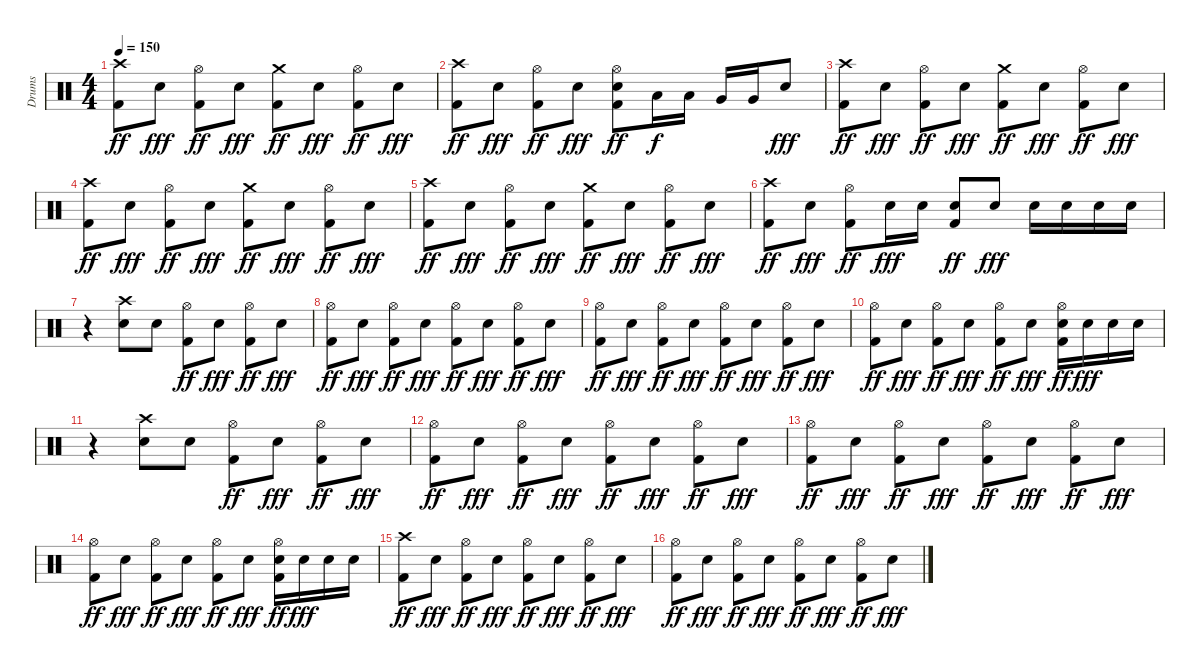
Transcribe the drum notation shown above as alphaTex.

\track ("Drums" "Drums") {instrument percussion}
\staff {score}
\articulation defaults
\ts (4 4)
\tempo 150
\clef neutral
\ks c
("Crash high (hit)" "Kick (hit) 2").8{dy ff} "Snare (hit) 2".8{dy fff} ("Hi-Hat (open)" "Kick (hit) 2").8{dy ff} "Snare (hit) 2".8{dy fff} ("Crash medium (hit)" "Kick (hit) 2").8{dy ff} "Snare (hit) 2".8{dy fff} ("Hi-Hat (open)" "Kick (hit) 2").8{dy ff} "Snare (hit) 2".8{dy fff} |
("Crash high (hit)" "Kick (hit) 2").8{dy ff} "Snare (hit) 2".8{dy fff} ("Hi-Hat (open)" "Kick (hit) 2").8{dy ff} "Snare (hit) 2".8{dy fff} ("Hi-Hat (open)" "Snare (hit) 2" "Kick (hit) 2").8{dy ff} "Low Tom (hit)".16{dy f} "Low Tom (hit)".16 "Very Low Tom (hit)".16 "Very Low Tom (hit)".16 "Snare (hit) 2".8{dy fff} |
("Crash high (hit)" "Kick (hit) 2").8{dy ff} "Snare (hit) 2".8{dy fff} ("Hi-Hat (open)" "Kick (hit) 2").8{dy ff} "Snare (hit) 2".8{dy fff} ("Crash medium (hit)" "Kick (hit) 2").8{dy ff} "Snare (hit) 2".8{dy fff} ("Hi-Hat (open)" "Kick (hit) 2").8{dy ff} "Snare (hit) 2".8{dy fff} |
("Crash high (hit)" "Kick (hit) 2").8{dy ff} "Snare (hit) 2".8{dy fff} ("Hi-Hat (open)" "Kick (hit) 2").8{dy ff} "Snare (hit) 2".8{dy fff} ("Crash medium (hit)" "Kick (hit) 2").8{dy ff} "Snare (hit) 2".8{dy fff} ("Hi-Hat (open)" "Kick (hit) 2").8{dy ff} "Snare (hit) 2".8{dy fff} |
("Crash high (hit)" "Kick (hit) 2").8{dy ff} "Snare (hit) 2".8{dy fff} ("Hi-Hat (open)" "Kick (hit) 2").8{dy ff} "Snare (hit) 2".8{dy fff} ("Crash medium (hit)" "Kick (hit) 2").8{dy ff} "Snare (hit) 2".8{dy fff} ("Hi-Hat (open)" "Kick (hit) 2").8{dy ff} "Snare (hit) 2".8{dy fff} |
("Crash high (hit)" "Kick (hit) 2").8{dy ff} "Snare (hit) 2".8{dy fff} ("Hi-Hat (open)" "Kick (hit) 2").8{dy ff} "Snare (hit) 2".16{dy fff} "Snare (hit) 2".16 ("Snare (hit) 2" "Kick (hit) 2").8{dy ff} "Snare (hit) 2".8{dy fff} "Snare (hit) 2".16 "Snare (hit) 2".16 "Snare (hit) 2".16 "Snare (hit) 2".16 |
r.4 ("Crash high (hit)" "Snare (hit) 2").8 "Snare (hit) 2".8 ("Hi-Hat (open)" "Kick (hit) 2").8{dy ff} "Snare (hit) 2".8{dy fff} ("Hi-Hat (open)" "Kick (hit) 2").8{dy ff} "Snare (hit) 2".8{dy fff} |
("Hi-Hat (open)" "Kick (hit) 2").8{dy ff} "Snare (hit) 2".8{dy fff} ("Hi-Hat (open)" "Kick (hit) 2").8{dy ff} "Snare (hit) 2".8{dy fff} ("Hi-Hat (open)" "Kick (hit) 2").8{dy ff} "Snare (hit) 2".8{dy fff} ("Hi-Hat (open)" "Kick (hit) 2").8{dy ff} "Snare (hit) 2".8{dy fff} |
("Hi-Hat (open)" "Kick (hit) 2").8{dy ff} "Snare (hit) 2".8{dy fff} ("Hi-Hat (open)" "Kick (hit) 2").8{dy ff} "Snare (hit) 2".8{dy fff} ("Hi-Hat (open)" "Kick (hit) 2").8{dy ff} "Snare (hit) 2".8{dy fff} ("Hi-Hat (open)" "Kick (hit) 2").8{dy ff} "Snare (hit) 2".8{dy fff} |
("Hi-Hat (open)" "Kick (hit) 2").8{dy ff} "Snare (hit) 2".8{dy fff} ("Hi-Hat (open)" "Kick (hit) 2").8{dy ff} "Snare (hit) 2".8{dy fff} ("Hi-Hat (open)" "Kick (hit) 2").8{dy ff} "Snare (hit) 2".8{dy fff} ("Hi-Hat (open)" "Snare (hit) 2" "Kick (hit) 2").16{dy ff} "Snare (hit) 2".16{dy fff} "Snare (hit) 2".16 "Snare (hit) 2".16 |
r.4 ("Crash high (hit)" "Snare (hit) 2").8 "Snare (hit) 2".8 ("Hi-Hat (open)" "Kick (hit) 2").8{dy ff} "Snare (hit) 2".8{dy fff} ("Hi-Hat (open)" "Kick (hit) 2").8{dy ff} "Snare (hit) 2".8{dy fff} |
("Hi-Hat (open)" "Kick (hit) 2").8{dy ff} "Snare (hit) 2".8{dy fff} ("Hi-Hat (open)" "Kick (hit) 2").8{dy ff} "Snare (hit) 2".8{dy fff} ("Hi-Hat (open)" "Kick (hit) 2").8{dy ff} "Snare (hit) 2".8{dy fff} ("Hi-Hat (open)" "Kick (hit) 2").8{dy ff} "Snare (hit) 2".8{dy fff} |
("Hi-Hat (open)" "Kick (hit) 2").8{dy ff} "Snare (hit) 2".8{dy fff} ("Hi-Hat (open)" "Kick (hit) 2").8{dy ff} "Snare (hit) 2".8{dy fff} ("Hi-Hat (open)" "Kick (hit) 2").8{dy ff} "Snare (hit) 2".8{dy fff} ("Hi-Hat (open)" "Kick (hit) 2").8{dy ff} "Snare (hit) 2".8{dy fff} |
("Hi-Hat (open)" "Kick (hit) 2").8{dy ff} "Snare (hit) 2".8{dy fff} ("Hi-Hat (open)" "Kick (hit) 2").8{dy ff} "Snare (hit) 2".8{dy fff} ("Hi-Hat (open)" "Kick (hit) 2").8{dy ff} "Snare (hit) 2".8{dy fff} ("Hi-Hat (open)" "Snare (hit) 2" "Kick (hit) 2").16{dy ff} "Snare (hit) 2".16{dy fff} "Snare (hit) 2".16 "Snare (hit) 2".16 |
("Crash high (hit)" "Kick (hit) 2").8{dy ff} "Snare (hit) 2".8{dy fff} ("Hi-Hat (open)" "Kick (hit) 2").8{dy ff} "Snare (hit) 2".8{dy fff} ("Hi-Hat (open)" "Kick (hit) 2").8{dy ff} "Snare (hit) 2".8{dy fff} ("Hi-Hat (open)" "Kick (hit) 2").8{dy ff} "Snare (hit) 2".8{dy fff} |
("Hi-Hat (open)" "Kick (hit) 2").8{dy ff} "Snare (hit) 2".8{dy fff} ("Hi-Hat (open)" "Kick (hit) 2").8{dy ff} "Snare (hit) 2".8{dy fff} ("Hi-Hat (open)" "Kick (hit) 2").8{dy ff} "Snare (hit) 2".8{dy fff} ("Hi-Hat (open)" "Kick (hit) 2").8{dy ff} "Snare (hit) 2".8{dy fff}
